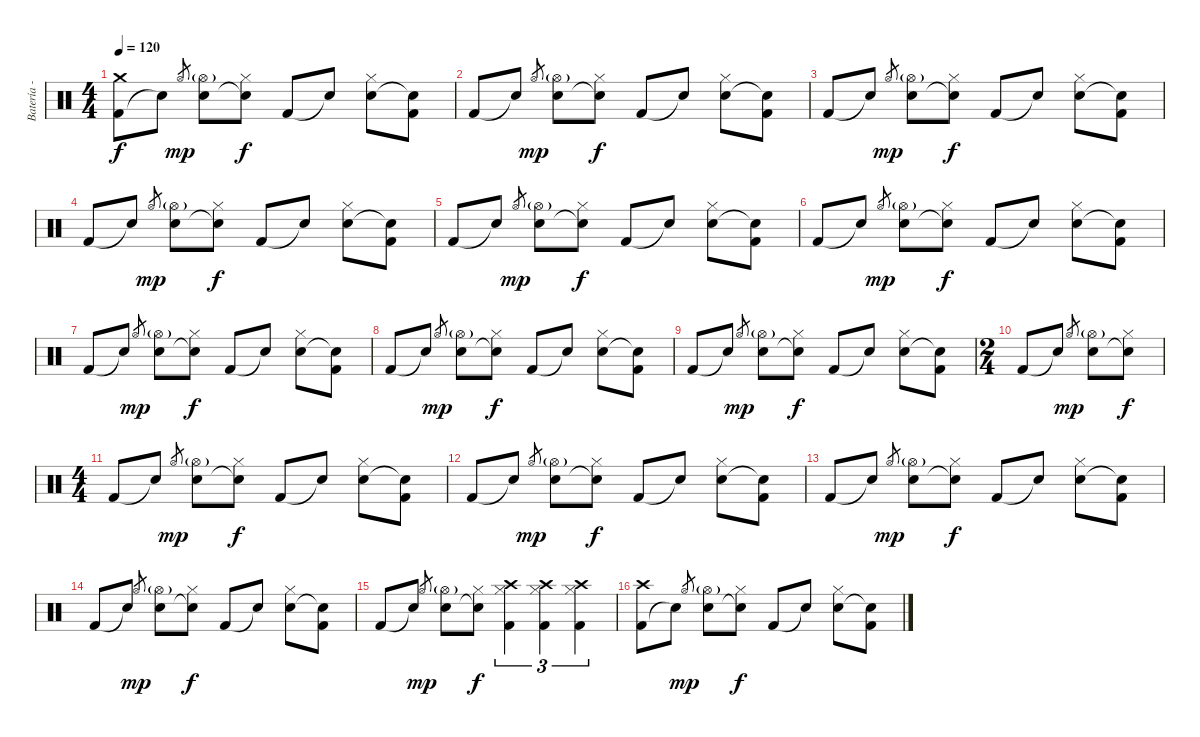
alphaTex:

\track ("Batería - Txus" "Batería - ") {instrument percussion}
\staff {score}
\articulation defaults
\ts (4 4)
\tempo 120
\clef neutral
\ks c
("Kick (hit) 2" "Crash medium (hit)").8{dy f} "Snare (hit)"{t}.8 "Hi-Hat (open)".8{gr dy mp} ("Snare (hit) 2" "Hi-Hat (open)"{g}).8 ("Snare (hit)"{t} "Hi-Hat (closed)").8{dy f} "Kick (hit) 2".8 "Snare (hit)"{t}.8 ("Snare (hit) 2" "Hi-Hat (closed)").8 ("Snare (hit)"{t} "Kick (hit) 2").8 |
"Kick (hit) 2".8 "Snare (hit)"{t}.8 "Hi-Hat (open)".8{gr dy mp} ("Snare (hit) 2" "Hi-Hat (open)"{g}).8 ("Snare (hit)"{t} "Hi-Hat (closed)").8{dy f} "Kick (hit) 2".8 "Snare (hit)"{t}.8 ("Snare (hit) 2" "Hi-Hat (closed)").8 ("Snare (hit)"{t} "Kick (hit) 2").8 |
"Kick (hit) 2".8 "Snare (hit)"{t}.8 "Hi-Hat (open)".8{gr dy mp} ("Snare (hit) 2" "Hi-Hat (open)"{g}).8 ("Snare (hit)"{t} "Hi-Hat (closed)").8{dy f} "Kick (hit) 2".8 "Snare (hit)"{t}.8 ("Snare (hit) 2" "Hi-Hat (closed)").8 ("Snare (hit)"{t} "Kick (hit) 2").8 |
"Kick (hit) 2".8 "Snare (hit)"{t}.8 "Hi-Hat (open)".8{gr dy mp} ("Snare (hit) 2" "Hi-Hat (open)"{g}).8 ("Snare (hit)"{t} "Hi-Hat (closed)").8{dy f} "Kick (hit) 2".8 "Snare (hit)"{t}.8 ("Snare (hit) 2" "Hi-Hat (closed)").8 ("Snare (hit)"{t} "Kick (hit) 2").8 |
"Kick (hit) 2".8 "Snare (hit)"{t}.8 "Hi-Hat (open)".8{gr dy mp} ("Snare (hit) 2" "Hi-Hat (open)"{g}).8 ("Snare (hit)"{t} "Hi-Hat (closed)").8{dy f} "Kick (hit) 2".8 "Snare (hit)"{t}.8 ("Snare (hit) 2" "Hi-Hat (closed)").8 ("Snare (hit)"{t} "Kick (hit) 2").8 |
"Kick (hit) 2".8 "Snare (hit)"{t}.8 "Hi-Hat (open)".8{gr dy mp} ("Snare (hit) 2" "Hi-Hat (open)"{g}).8 ("Snare (hit)"{t} "Hi-Hat (closed)").8{dy f} "Kick (hit) 2".8 "Snare (hit)"{t}.8 ("Snare (hit) 2" "Hi-Hat (closed)").8 ("Snare (hit)"{t} "Kick (hit) 2").8 |
"Kick (hit) 2".8 "Snare (hit)"{t}.8 "Hi-Hat (open)".8{gr dy mp} ("Snare (hit) 2" "Hi-Hat (open)"{g}).8 ("Snare (hit)"{t} "Hi-Hat (closed)").8{dy f} "Kick (hit) 2".8 "Snare (hit)"{t}.8 ("Snare (hit) 2" "Hi-Hat (closed)").8 ("Snare (hit)"{t} "Kick (hit) 2").8 |
"Kick (hit) 2".8 "Snare (hit)"{t}.8 "Hi-Hat (open)".8{gr dy mp} ("Snare (hit) 2" "Hi-Hat (open)"{g}).8 ("Snare (hit)"{t} "Hi-Hat (closed)").8{dy f} "Kick (hit) 2".8 "Snare (hit)"{t}.8 ("Snare (hit) 2" "Hi-Hat (closed)").8 ("Snare (hit)"{t} "Kick (hit) 2").8 |
"Kick (hit) 2".8 "Snare (hit)"{t}.8 "Hi-Hat (open)".8{gr dy mp} ("Snare (hit) 2" "Hi-Hat (open)"{g}).8 ("Snare (hit)"{t} "Hi-Hat (closed)").8{dy f} "Kick (hit) 2".8 "Snare (hit)"{t}.8 ("Snare (hit) 2" "Hi-Hat (closed)").8 ("Snare (hit)"{t} "Kick (hit) 2").8 |
\ts (2 4)
"Kick (hit) 2".8 "Snare (hit)"{t}.8 "Hi-Hat (open)".8{gr dy mp} ("Snare (hit) 2" "Hi-Hat (open)"{g}).8 ("Snare (hit)"{t} "Hi-Hat (closed)").8{dy f} |
\ts (4 4)
"Kick (hit) 2".8 "Snare (hit)"{t}.8 "Hi-Hat (open)".8{gr dy mp} ("Snare (hit) 2" "Hi-Hat (open)"{g}).8 ("Snare (hit)"{t} "Hi-Hat (closed)").8{dy f} "Kick (hit) 2".8 "Snare (hit)"{t}.8 ("Snare (hit) 2" "Hi-Hat (closed)").8 ("Snare (hit)"{t} "Kick (hit) 2").8 |
"Kick (hit) 2".8 "Snare (hit)"{t}.8 "Hi-Hat (open)".8{gr dy mp} ("Snare (hit) 2" "Hi-Hat (open)"{g}).8 ("Snare (hit)"{t} "Hi-Hat (closed)").8{dy f} "Kick (hit) 2".8 "Snare (hit)"{t}.8 ("Snare (hit) 2" "Hi-Hat (closed)").8 ("Snare (hit)"{t} "Kick (hit) 2").8 |
"Kick (hit) 2".8 "Snare (hit)"{t}.8 "Hi-Hat (open)".8{gr dy mp} ("Snare (hit) 2" "Hi-Hat (open)"{g}).8 ("Snare (hit)"{t} "Hi-Hat (closed)").8{dy f} "Kick (hit) 2".8 "Snare (hit)"{t}.8 ("Snare (hit) 2" "Hi-Hat (closed)").8 ("Snare (hit)"{t} "Kick (hit) 2").8 |
"Kick (hit) 2".8 "Snare (hit)"{t}.8 "Hi-Hat (open)".8{gr dy mp} ("Snare (hit) 2" "Hi-Hat (open)"{g}).8 ("Snare (hit)"{t} "Hi-Hat (closed)").8{dy f} "Kick (hit) 2".8 "Snare (hit)"{t}.8 ("Snare (hit) 2" "Hi-Hat (closed)").8 ("Snare (hit)"{t} "Kick (hit) 2").8 |
"Kick (hit) 2".8 "Snare (hit)"{t}.8 "Hi-Hat (open)".8{gr dy mp} ("Snare (hit) 2" "Hi-Hat (open)"{g}).8 ("Snare (hit)"{t} "Hi-Hat (closed)").8{dy f} ("Kick (hit) 2" "Hi-Hat (closed)" "Crash high (hit)").4{tu (3 2)} ("Kick (hit) 2" "Hi-Hat (closed)" "Crash high (hit)").4{tu (3 2)} ("Kick (hit) 2" "Hi-Hat (closed)" "Crash high (hit)").4{tu (3 2)} |
("Kick (hit) 2" "Crash high (hit)").8 "Snare (hit)"{t}.8 "Hi-Hat (open)".8{gr dy mp} ("Snare (hit) 2" "Hi-Hat (open)"{g}).8 ("Snare (hit)"{t} "Hi-Hat (closed)").8{dy f} "Kick (hit) 2".8 "Snare (hit)"{t}.8 ("Snare (hit) 2" "Hi-Hat (closed)").8 ("Snare (hit)"{t} "Kick (hit) 2").8
